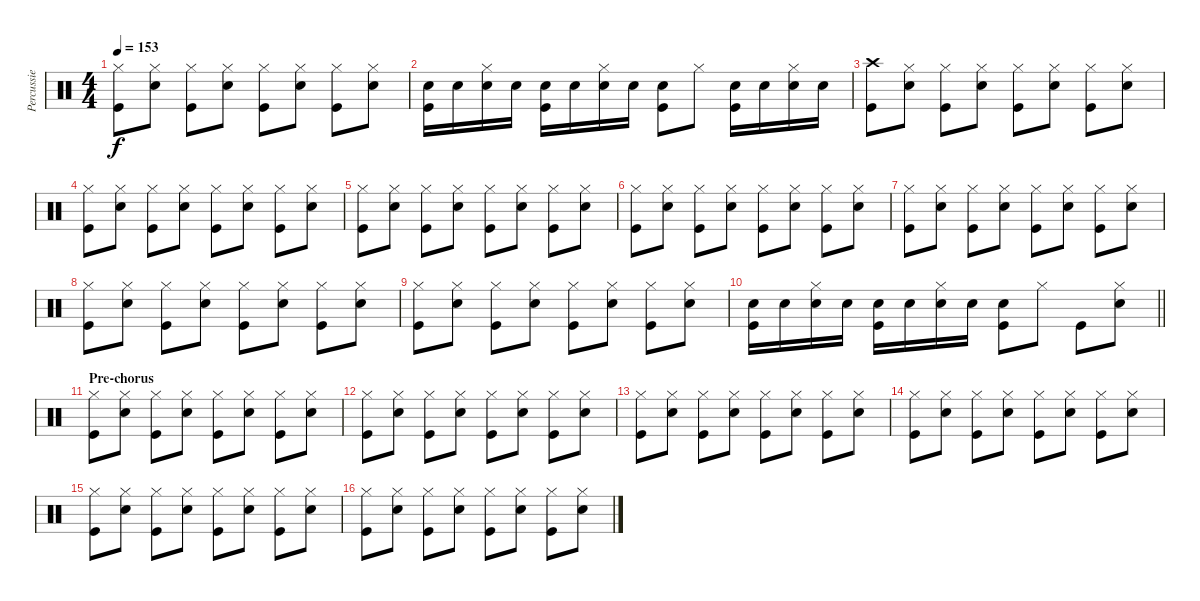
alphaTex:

\track ("Percussie George Schwindt" "Percussie ") {instrument percussion}
\staff {score}
\articulation defaults
\ts (4 4)
\tempo 153
\clef neutral
\ks c
("Hi-Hat (closed)" "Kick (hit)").8{dy f} ("Electric Snare (hit)" "Hi-Hat (closed)").8 ("Hi-Hat (closed)" "Kick (hit)").8 ("Electric Snare (hit)" "Hi-Hat (closed)").8 ("Hi-Hat (closed)" "Kick (hit)").8 ("Electric Snare (hit)" "Hi-Hat (closed)").8 ("Hi-Hat (closed)" "Kick (hit)").8 ("Electric Snare (hit)" "Hi-Hat (closed)").8 |
("Electric Snare (hit)" "Kick (hit)").16 "Electric Snare (hit)".16 ("Electric Snare (hit)" "Hi-Hat (closed)").16 "Electric Snare (hit)".16 ("Electric Snare (hit)" "Kick (hit)").16 "Electric Snare (hit)".16 ("Electric Snare (hit)" "Hi-Hat (closed)").16 "Electric Snare (hit)".16 ("Electric Snare (hit)" "Kick (hit)").8 "Hi-Hat (closed)".8 ("Electric Snare (hit)" "Kick (hit)").16 "Electric Snare (hit)".16 ("Electric Snare (hit)" "Hi-Hat (closed)").16 "Electric Snare (hit)".16 |
("Crash high (hit)" "Kick (hit)").8 ("Electric Snare (hit)" "Hi-Hat (closed)").8 ("Hi-Hat (closed)" "Kick (hit)").8 ("Electric Snare (hit)" "Hi-Hat (closed)").8 ("Hi-Hat (closed)" "Kick (hit)").8 ("Electric Snare (hit)" "Hi-Hat (closed)").8 ("Hi-Hat (closed)" "Kick (hit)").8 ("Electric Snare (hit)" "Hi-Hat (closed)").8 |
("Hi-Hat (closed)" "Kick (hit)").8 ("Electric Snare (hit)" "Hi-Hat (closed)").8 ("Hi-Hat (closed)" "Kick (hit)").8 ("Electric Snare (hit)" "Hi-Hat (closed)").8 ("Hi-Hat (closed)" "Kick (hit)").8 ("Electric Snare (hit)" "Hi-Hat (closed)").8 ("Hi-Hat (closed)" "Kick (hit)").8 ("Electric Snare (hit)" "Hi-Hat (closed)").8 |
("Hi-Hat (closed)" "Kick (hit)").8 ("Electric Snare (hit)" "Hi-Hat (closed)").8 ("Hi-Hat (closed)" "Kick (hit)").8 ("Electric Snare (hit)" "Hi-Hat (closed)").8 ("Hi-Hat (closed)" "Kick (hit)").8 ("Electric Snare (hit)" "Hi-Hat (closed)").8 ("Hi-Hat (closed)" "Kick (hit)").8 ("Electric Snare (hit)" "Hi-Hat (closed)").8 |
("Hi-Hat (closed)" "Kick (hit)").8 ("Electric Snare (hit)" "Hi-Hat (closed)").8 ("Hi-Hat (closed)" "Kick (hit)").8 ("Electric Snare (hit)" "Hi-Hat (closed)").8 ("Hi-Hat (closed)" "Kick (hit)").8 ("Electric Snare (hit)" "Hi-Hat (closed)").8 ("Hi-Hat (closed)" "Kick (hit)").8 ("Electric Snare (hit)" "Hi-Hat (closed)").8 |
("Hi-Hat (closed)" "Kick (hit)").8 ("Electric Snare (hit)" "Hi-Hat (closed)").8 ("Hi-Hat (closed)" "Kick (hit)").8 ("Electric Snare (hit)" "Hi-Hat (closed)").8 ("Hi-Hat (closed)" "Kick (hit)").8 ("Electric Snare (hit)" "Hi-Hat (closed)").8 ("Hi-Hat (closed)" "Kick (hit)").8 ("Electric Snare (hit)" "Hi-Hat (closed)").8 |
("Hi-Hat (closed)" "Kick (hit)").8 ("Electric Snare (hit)" "Hi-Hat (closed)").8 ("Hi-Hat (closed)" "Kick (hit)").8 ("Electric Snare (hit)" "Hi-Hat (closed)").8 ("Hi-Hat (closed)" "Kick (hit)").8 ("Electric Snare (hit)" "Hi-Hat (closed)").8 ("Hi-Hat (closed)" "Kick (hit)").8 ("Electric Snare (hit)" "Hi-Hat (closed)").8 |
("Hi-Hat (closed)" "Kick (hit)").8 ("Electric Snare (hit)" "Hi-Hat (closed)").8 ("Hi-Hat (closed)" "Kick (hit)").8 ("Electric Snare (hit)" "Hi-Hat (closed)").8 ("Hi-Hat (closed)" "Kick (hit)").8 ("Electric Snare (hit)" "Hi-Hat (closed)").8 ("Hi-Hat (closed)" "Kick (hit)").8 ("Electric Snare (hit)" "Hi-Hat (closed)").8 |
\barLineRight lightlight
("Electric Snare (hit)" "Kick (hit)").16 "Electric Snare (hit)".16 ("Electric Snare (hit)" "Hi-Hat (closed)").16 "Electric Snare (hit)".16 ("Electric Snare (hit)" "Kick (hit)").16 "Electric Snare (hit)".16 ("Electric Snare (hit)" "Hi-Hat (closed)").16 "Electric Snare (hit)".16 ("Electric Snare (hit)" "Kick (hit)").8 "Hi-Hat (closed)".8 "Kick (hit)".8 ("Electric Snare (hit)" "Hi-Hat (closed)").8 |
\section ("" "Pre-chorus")
("Hi-Hat (closed)" "Kick (hit)").8 ("Electric Snare (hit)" "Hi-Hat (closed)").8 ("Hi-Hat (closed)" "Kick (hit)").8 ("Electric Snare (hit)" "Hi-Hat (closed)").8 ("Hi-Hat (closed)" "Kick (hit)").8 ("Electric Snare (hit)" "Hi-Hat (closed)").8 ("Hi-Hat (closed)" "Kick (hit)").8 ("Electric Snare (hit)" "Hi-Hat (closed)").8 |
("Hi-Hat (closed)" "Kick (hit)").8 ("Electric Snare (hit)" "Hi-Hat (closed)").8 ("Hi-Hat (closed)" "Kick (hit)").8 ("Electric Snare (hit)" "Hi-Hat (closed)").8 ("Hi-Hat (closed)" "Kick (hit)").8 ("Electric Snare (hit)" "Hi-Hat (closed)").8 ("Hi-Hat (closed)" "Kick (hit)").8 ("Electric Snare (hit)" "Hi-Hat (closed)").8 |
("Hi-Hat (closed)" "Kick (hit)").8 ("Electric Snare (hit)" "Hi-Hat (closed)").8 ("Hi-Hat (closed)" "Kick (hit)").8 ("Electric Snare (hit)" "Hi-Hat (closed)").8 ("Hi-Hat (closed)" "Kick (hit)").8 ("Electric Snare (hit)" "Hi-Hat (closed)").8 ("Hi-Hat (closed)" "Kick (hit)").8 ("Electric Snare (hit)" "Hi-Hat (closed)").8 |
("Hi-Hat (closed)" "Kick (hit)").8 ("Electric Snare (hit)" "Hi-Hat (closed)").8 ("Hi-Hat (closed)" "Kick (hit)").8 ("Electric Snare (hit)" "Hi-Hat (closed)").8 ("Hi-Hat (closed)" "Kick (hit)").8 ("Electric Snare (hit)" "Hi-Hat (closed)").8 ("Hi-Hat (closed)" "Kick (hit)").8 ("Electric Snare (hit)" "Hi-Hat (closed)").8 |
("Hi-Hat (closed)" "Kick (hit)").8 ("Electric Snare (hit)" "Hi-Hat (closed)").8 ("Hi-Hat (closed)" "Kick (hit)").8 ("Electric Snare (hit)" "Hi-Hat (closed)").8 ("Hi-Hat (closed)" "Kick (hit)").8 ("Electric Snare (hit)" "Hi-Hat (closed)").8 ("Hi-Hat (closed)" "Kick (hit)").8 ("Electric Snare (hit)" "Hi-Hat (closed)").8 |
("Hi-Hat (closed)" "Kick (hit)").8 ("Electric Snare (hit)" "Hi-Hat (closed)").8 ("Hi-Hat (closed)" "Kick (hit)").8 ("Electric Snare (hit)" "Hi-Hat (closed)").8 ("Hi-Hat (closed)" "Kick (hit)").8 ("Electric Snare (hit)" "Hi-Hat (closed)").8 ("Hi-Hat (closed)" "Kick (hit)").8 ("Electric Snare (hit)" "Hi-Hat (closed)").8
